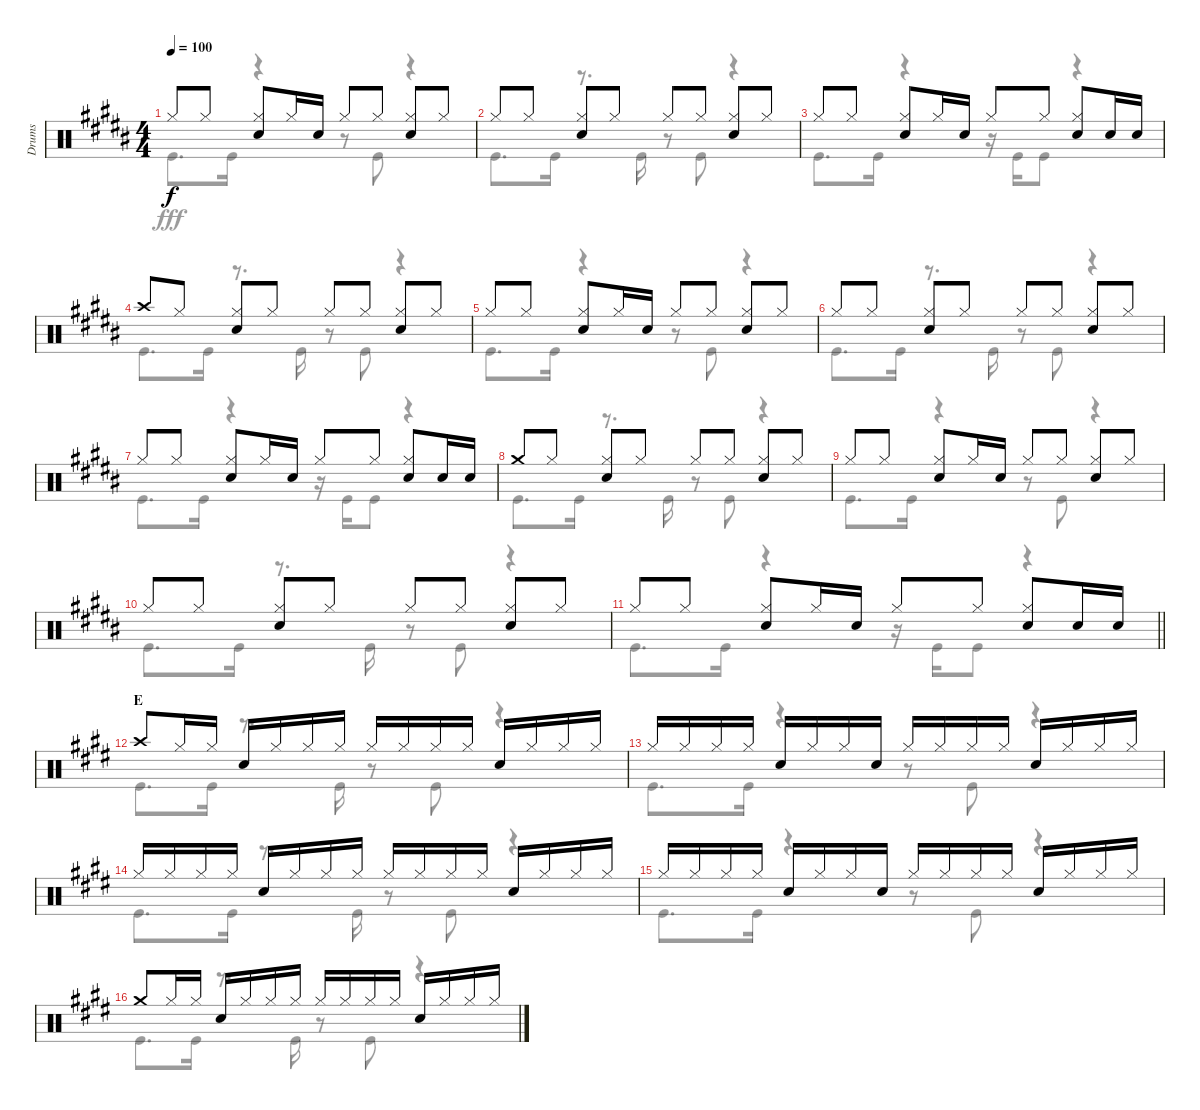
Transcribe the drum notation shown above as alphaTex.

\track ("Drums" "Drums") {instrument percussion}
\staff {score}
\articulation defaults
\voice
\ts (4 4)
\tempo 100
\clef neutral
\ks b "Hi-Hat (closed)".8{dy f} "Hi-Hat (closed)".8
("Hi-Hat (closed)" "Snare (hit) 2").8 "Hi-Hat (closed)".16 "Snare (hit) 2".16 "Hi-Hat (closed)".8 "Hi-Hat (closed)".8 ("Hi-Hat (closed)" "Snare (hit) 2").8 "Hi-Hat (closed)".8 |
"Hi-Hat (closed)".8 "Hi-Hat (closed)".8 ("Hi-Hat (closed)" "Snare (hit) 2").8 "Hi-Hat (closed)".8 "Hi-Hat (closed)".8 "Hi-Hat (closed)".8 ("Hi-Hat (closed)" "Snare (hit) 2").8 "Hi-Hat (closed)".8 |
"Hi-Hat (closed)".8 "Hi-Hat (closed)".8 ("Hi-Hat (closed)" "Snare (hit) 2").8 "Hi-Hat (closed)".16 "Snare (hit) 2".16 "Hi-Hat (closed)".8 "Hi-Hat (closed)".8 ("Hi-Hat (closed)" "Snare (hit) 2").8 "Snare (hit) 2".16 "Snare (hit) 2".16 |
"Crash high (hit)".8 "Hi-Hat (closed)".8 ("Hi-Hat (closed)" "Snare (hit) 2").8 "Hi-Hat (closed)".8 "Hi-Hat (closed)".8 "Hi-Hat (closed)".8 ("Hi-Hat (closed)" "Snare (hit) 2").8 "Hi-Hat (closed)".8 |
"Hi-Hat (closed)".8 "Hi-Hat (closed)".8 ("Hi-Hat (closed)" "Snare (hit) 2").8 "Hi-Hat (closed)".16 "Snare (hit) 2".16 "Hi-Hat (closed)".8 "Hi-Hat (closed)".8 ("Hi-Hat (closed)" "Snare (hit) 2").8 "Hi-Hat (closed)".8 |
"Hi-Hat (closed)".8 "Hi-Hat (closed)".8 ("Hi-Hat (closed)" "Snare (hit) 2").8 "Hi-Hat (closed)".8 "Hi-Hat (closed)".8 "Hi-Hat (closed)".8 ("Hi-Hat (closed)" "Snare (hit) 2").8 "Hi-Hat (closed)".8 |
"Hi-Hat (closed)".8 "Hi-Hat (closed)".8 ("Hi-Hat (closed)" "Snare (hit) 2").8 "Hi-Hat (closed)".16 "Snare (hit) 2".16 "Hi-Hat (closed)".8 "Hi-Hat (closed)".8 ("Hi-Hat (closed)" "Snare (hit) 2").8 "Snare (hit) 2".16 "Snare (hit) 2".16 |
"Crash medium (hit)".8 "Hi-Hat (closed)".8 ("Hi-Hat (closed)" "Snare (hit) 2").8 "Hi-Hat (closed)".8 "Hi-Hat (closed)".8 "Hi-Hat (closed)".8 ("Hi-Hat (closed)" "Snare (hit) 2").8 "Hi-Hat (closed)".8 |
"Hi-Hat (closed)".8 "Hi-Hat (closed)".8 ("Hi-Hat (closed)" "Snare (hit) 2").8 "Hi-Hat (closed)".16 "Snare (hit) 2".16 "Hi-Hat (closed)".8 "Hi-Hat (closed)".8 ("Hi-Hat (closed)" "Snare (hit) 2").8 "Hi-Hat (closed)".8 |
"Hi-Hat (closed)".8 "Hi-Hat (closed)".8 ("Hi-Hat (closed)" "Snare (hit) 2").8 "Hi-Hat (closed)".8 "Hi-Hat (closed)".8 "Hi-Hat (closed)".8 ("Hi-Hat (closed)" "Snare (hit) 2").8 "Hi-Hat (closed)".8 |
\barLineRight lightlight "Hi-Hat (closed)".8 "Hi-Hat (closed)".8
("Hi-Hat (closed)" "Snare (hit) 2").8 "Hi-Hat (closed)".16 "Snare (hit) 2".16 "Hi-Hat (closed)".8 "Hi-Hat (closed)".8 ("Hi-Hat (closed)" "Snare (hit) 2").8 "Snare (hit) 2".16 "Snare (hit) 2".16 |
\section ("" "E")
\ks e "Crash high (hit)".8 "Hi-Hat (closed)".16 "Hi-Hat (closed)".16 "Snare (hit) 2".16 "Hi-Hat (closed)".16 "Hi-Hat (closed)".16 "Hi-Hat (closed)".16 "Hi-Hat (closed)".16 "Hi-Hat (closed)".16 "Hi-Hat (closed)".16 "Hi-Hat (closed)".16 "Snare (hit) 2".16 "Hi-Hat (closed)".16 "Hi-Hat (closed)".16 "Hi-Hat (closed)".16
|
"Hi-Hat (closed)".16 "Hi-Hat (closed)".16 "Hi-Hat (closed)".16 "Hi-Hat (closed)".16 "Snare (hit) 2".16 "Hi-Hat (closed)".16 "Hi-Hat (closed)".16 "Snare (hit) 2".16 "Hi-Hat (closed)".16 "Hi-Hat (closed)".16 "Hi-Hat (closed)".16 "Hi-Hat (closed)".16 "Snare (hit) 2".16 "Hi-Hat (closed)".16 "Hi-Hat (closed)".16 "Hi-Hat (closed)".16 |
"Hi-Hat (closed)".16 "Hi-Hat (closed)".16 "Hi-Hat (closed)".16 "Hi-Hat (closed)".16 "Snare (hit) 2".16 "Hi-Hat (closed)".16 "Hi-Hat (closed)".16 "Hi-Hat (closed)".16 "Hi-Hat (closed)".16 "Hi-Hat (closed)".16 "Hi-Hat (closed)".16 "Hi-Hat (closed)".16 "Snare (hit) 2".16 "Hi-Hat (closed)".16 "Hi-Hat (closed)".16 "Hi-Hat (closed)".16 |
"Hi-Hat (closed)".16 "Hi-Hat (closed)".16 "Hi-Hat (closed)".16 "Hi-Hat (closed)".16 "Snare (hit) 2".16 "Hi-Hat (closed)".16 "Hi-Hat (closed)".16 "Snare (hit) 2".16 "Hi-Hat (closed)".16 "Hi-Hat (closed)".16 "Hi-Hat (closed)".16 "Hi-Hat (closed)".16 "Snare (hit) 2".16 "Hi-Hat (closed)".16 "Hi-Hat (closed)".16 "Hi-Hat (closed)".16 |
"Crash medium (hit)".8 "Hi-Hat (closed)".16 "Hi-Hat (closed)".16 "Snare (hit) 2".16 "Hi-Hat (closed)".16 "Hi-Hat (closed)".16 "Hi-Hat (closed)".16 "Hi-Hat (closed)".16 "Hi-Hat (closed)".16 "Hi-Hat (closed)".16 "Hi-Hat (closed)".16 "Snare (hit) 2".16 "Hi-Hat (closed)".16 "Hi-Hat (closed)".16 "Hi-Hat (closed)".16
\voice
\clef neutral
\ottava regular
\simile none
\ks b "Kick (hit)".8{d dy fff} "Kick (hit)".16
r.4 r.8 "Kick (hit)".8 r.4 |
"Kick (hit)".8{d} "Kick (hit)".16 r.8{d} "Kick (hit)".16 r.8 "Kick (hit)".8 r.4 |
"Kick (hit)".8{d} "Kick (hit)".16 r.4 r.16 "Kick (hit)".16 "Kick (hit)".8 r.4 |
"Kick (hit)".8{d} "Kick (hit)".16 r.8{d} "Kick (hit)".16 r.8 "Kick (hit)".8 r.4 |
"Kick (hit)".8{d} "Kick (hit)".16 r.4 r.8 "Kick (hit)".8 r.4 |
"Kick (hit)".8{d} "Kick (hit)".16 r.8{d} "Kick (hit)".16 r.8 "Kick (hit)".8 r.4 |
"Kick (hit)".8{d} "Kick (hit)".16 r.4 r.16 "Kick (hit)".16 "Kick (hit)".8 r.4 |
"Kick (hit)".8{d} "Kick (hit)".16 r.8{d} "Kick (hit)".16 r.8 "Kick (hit)".8 r.4 |
"Kick (hit)".8{d} "Kick (hit)".16 r.4 r.8 "Kick (hit)".8 r.4 |
"Kick (hit)".8{d} "Kick (hit)".16 r.8{d} "Kick (hit)".16 r.8 "Kick (hit)".8 r.4 |
\barLineRight lightlight "Kick (hit)".8{d} "Kick (hit)".16
r.4 r.16 "Kick (hit)".16 "Kick (hit)".8 r.4 |
\ks e "Kick (hit)".8{d} "Kick (hit)".16
r.8{d} "Kick (hit)".16 r.8 "Kick (hit)".8 r.4 |
"Kick (hit)".8{d} "Kick (hit)".16 r.4 r.8 "Kick (hit)".8 r.4 |
"Kick (hit)".8{d} "Kick (hit)".16 r.8{d} "Kick (hit)".16 r.8 "Kick (hit)".8 r.4 |
"Kick (hit)".8{d} "Kick (hit)".16 r.4 r.8 "Kick (hit)".8 r.4 |
"Kick (hit)".8{d} "Kick (hit)".16 r.8{d} "Kick (hit)".16 r.8 "Kick (hit)".8 r.4
